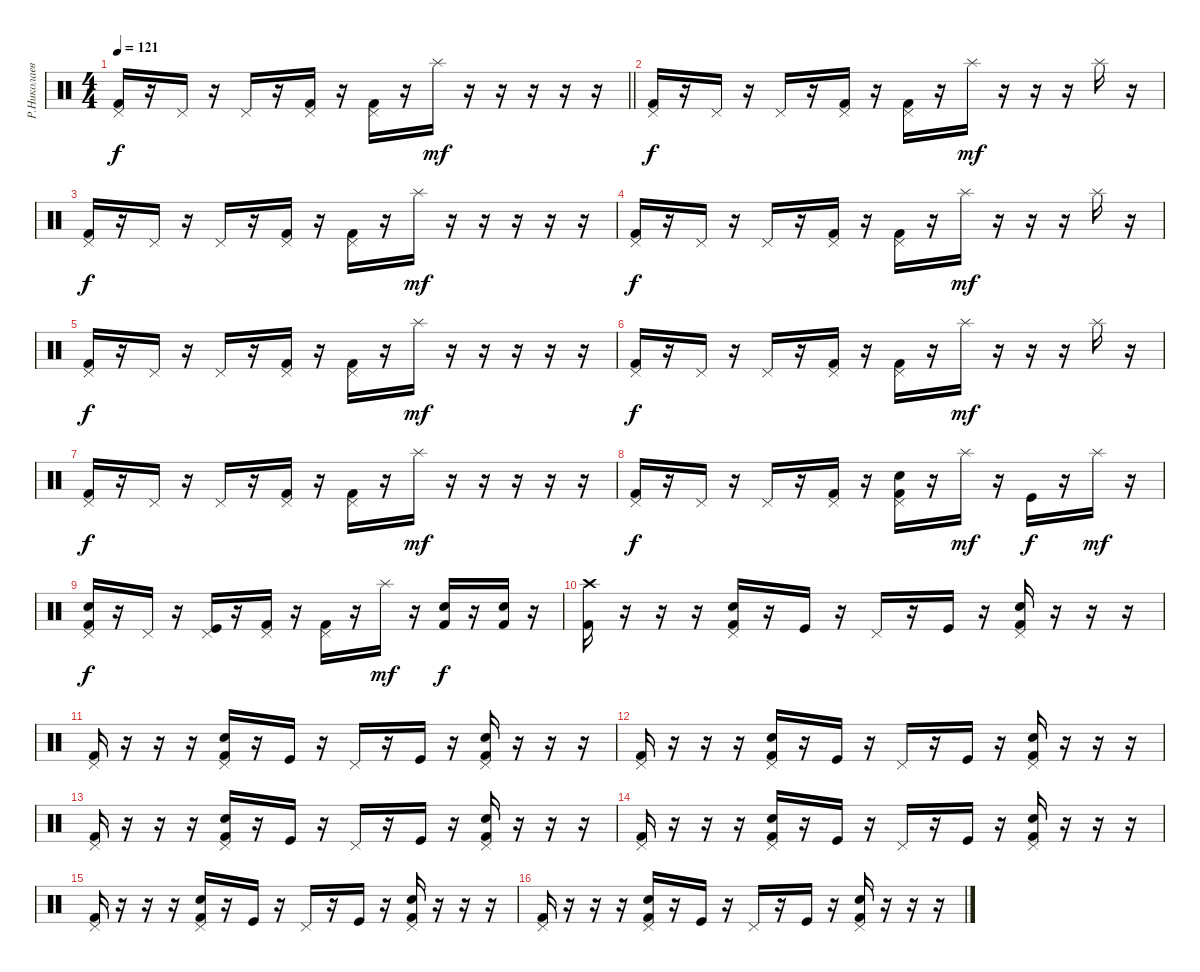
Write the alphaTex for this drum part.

\track ("Р.Николаев" "Р.Николаев") {instrument percussion}
\staff {score}
\articulation defaults
\ts (4 4)
\tempo 121
\clef neutral
\barLineRight lightlight
\ks c
("Pedal Hi-Hat (hit)" "Kick (hit) 2").16{dy f} r.16 "Pedal Hi-Hat (hit)".16 r.16 "Pedal Hi-Hat (hit)".16 r.16 ("Pedal Hi-Hat (hit)" "Kick (hit) 2").16 r.16 ("Pedal Hi-Hat (hit)" "Kick (hit) 2").16 r.16 "Splash (hit)".16{dy mf} r.16 r.16 r.16 r.16 r.16 |
("Pedal Hi-Hat (hit)" "Kick (hit) 2").16{dy f} r.16 "Pedal Hi-Hat (hit)".16 r.16 "Pedal Hi-Hat (hit)".16 r.16 ("Pedal Hi-Hat (hit)" "Kick (hit) 2").16 r.16 ("Pedal Hi-Hat (hit)" "Kick (hit) 2").16 r.16 "Splash (hit)".16{dy mf} r.16 r.16 r.16 "Splash (hit)".16 r.16 |
("Pedal Hi-Hat (hit)" "Kick (hit) 2").16{dy f} r.16 "Pedal Hi-Hat (hit)".16 r.16 "Pedal Hi-Hat (hit)".16 r.16 ("Pedal Hi-Hat (hit)" "Kick (hit) 2").16 r.16 ("Pedal Hi-Hat (hit)" "Kick (hit) 2").16 r.16 "Splash (hit)".16{dy mf} r.16 r.16 r.16 r.16 r.16 |
("Pedal Hi-Hat (hit)" "Kick (hit) 2").16{dy f} r.16 "Pedal Hi-Hat (hit)".16 r.16 "Pedal Hi-Hat (hit)".16 r.16 ("Pedal Hi-Hat (hit)" "Kick (hit) 2").16 r.16 ("Pedal Hi-Hat (hit)" "Kick (hit) 2").16 r.16 "Splash (hit)".16{dy mf} r.16 r.16 r.16 "Splash (hit)".16 r.16 |
("Pedal Hi-Hat (hit)" "Kick (hit) 2").16{dy f} r.16 "Pedal Hi-Hat (hit)".16 r.16 "Pedal Hi-Hat (hit)".16 r.16 ("Pedal Hi-Hat (hit)" "Kick (hit) 2").16 r.16 ("Pedal Hi-Hat (hit)" "Kick (hit) 2").16 r.16 "Splash (hit)".16{dy mf} r.16 r.16 r.16 r.16 r.16 |
("Pedal Hi-Hat (hit)" "Kick (hit) 2").16{dy f} r.16 "Pedal Hi-Hat (hit)".16 r.16 "Pedal Hi-Hat (hit)".16 r.16 ("Pedal Hi-Hat (hit)" "Kick (hit) 2").16 r.16 ("Pedal Hi-Hat (hit)" "Kick (hit) 2").16 r.16 "Splash (hit)".16{dy mf} r.16 r.16 r.16 "Splash (hit)".16 r.16 |
("Pedal Hi-Hat (hit)" "Kick (hit) 2").16{dy f} r.16 "Pedal Hi-Hat (hit)".16 r.16 "Pedal Hi-Hat (hit)".16 r.16 ("Pedal Hi-Hat (hit)" "Kick (hit) 2").16 r.16 ("Pedal Hi-Hat (hit)" "Kick (hit) 2").16 r.16 "Splash (hit)".16{dy mf} r.16 r.16 r.16 r.16 r.16 |
("Pedal Hi-Hat (hit)" "Kick (hit) 2").16{dy f} r.16 "Pedal Hi-Hat (hit)".16 r.16 "Pedal Hi-Hat (hit)".16 r.16 ("Pedal Hi-Hat (hit)" "Kick (hit) 2").16 r.16 ("Pedal Hi-Hat (hit)" "Snare (hit) 2" "Kick (hit) 2").16 r.16 "Splash (hit)".16{dy mf} r.16 "Kick (hit)".16{dy f} r.16 "Splash (hit)".16{dy mf} r.16 |
("Pedal Hi-Hat (hit)" "Snare (hit) 2" "Kick (hit) 2").16{dy f} r.16 "Pedal Hi-Hat (hit)".16 r.16 ("Pedal Hi-Hat (hit)" "Kick (hit)").16 r.16 ("Pedal Hi-Hat (hit)" "Kick (hit) 2").16 r.16 ("Pedal Hi-Hat (hit)" "Kick (hit) 2").16 r.16 "Splash (hit)".16{dy mf} r.16 ("Snare (hit) 2" "Kick (hit) 2").16{dy f} r.16 ("Snare (hit) 2" "Kick (hit) 2").16 r.16 |
("Crash high (hit)" "Kick (hit) 2").16 r.16 r.16 r.16 ("Pedal Hi-Hat (hit)" "Snare (hit) 2" "Kick (hit) 2").16 r.16 "Kick (hit)".16 r.16 "Pedal Hi-Hat (hit)".16 r.16 "Kick (hit)".16 r.16 ("Pedal Hi-Hat (hit)" "Snare (hit) 2" "Kick (hit) 2").16 r.16 r.16 r.16 |
("Pedal Hi-Hat (hit)" "Kick (hit) 2").16 r.16 r.16 r.16 ("Pedal Hi-Hat (hit)" "Snare (hit) 2" "Kick (hit) 2").16 r.16 "Kick (hit)".16 r.16 "Pedal Hi-Hat (hit)".16 r.16 "Kick (hit)".16 r.16 ("Pedal Hi-Hat (hit)" "Snare (hit) 2" "Kick (hit) 2").16 r.16 r.16 r.16 |
("Pedal Hi-Hat (hit)" "Kick (hit) 2").16 r.16 r.16 r.16 ("Pedal Hi-Hat (hit)" "Snare (hit) 2" "Kick (hit) 2").16 r.16 "Kick (hit)".16 r.16 "Pedal Hi-Hat (hit)".16 r.16 "Kick (hit)".16 r.16 ("Pedal Hi-Hat (hit)" "Snare (hit) 2" "Kick (hit) 2").16 r.16 r.16 r.16 |
("Pedal Hi-Hat (hit)" "Kick (hit) 2").16 r.16 r.16 r.16 ("Pedal Hi-Hat (hit)" "Snare (hit) 2" "Kick (hit) 2").16 r.16 "Kick (hit)".16 r.16 "Pedal Hi-Hat (hit)".16 r.16 "Kick (hit)".16 r.16 ("Pedal Hi-Hat (hit)" "Snare (hit) 2" "Kick (hit) 2").16 r.16 r.16 r.16 |
("Pedal Hi-Hat (hit)" "Kick (hit) 2").16 r.16 r.16 r.16 ("Pedal Hi-Hat (hit)" "Snare (hit) 2" "Kick (hit) 2").16 r.16 "Kick (hit)".16 r.16 "Pedal Hi-Hat (hit)".16 r.16 "Kick (hit)".16 r.16 ("Pedal Hi-Hat (hit)" "Snare (hit) 2" "Kick (hit) 2").16 r.16 r.16 r.16 |
("Pedal Hi-Hat (hit)" "Kick (hit) 2").16 r.16 r.16 r.16 ("Pedal Hi-Hat (hit)" "Snare (hit) 2" "Kick (hit) 2").16 r.16 "Kick (hit)".16 r.16 "Pedal Hi-Hat (hit)".16 r.16 "Kick (hit)".16 r.16 ("Pedal Hi-Hat (hit)" "Snare (hit) 2" "Kick (hit) 2").16 r.16 r.16 r.16 |
("Pedal Hi-Hat (hit)" "Kick (hit) 2").16 r.16 r.16 r.16 ("Pedal Hi-Hat (hit)" "Snare (hit) 2" "Kick (hit) 2").16 r.16 "Kick (hit)".16 r.16 "Pedal Hi-Hat (hit)".16 r.16 "Kick (hit)".16 r.16 ("Pedal Hi-Hat (hit)" "Snare (hit) 2" "Kick (hit) 2").16 r.16 r.16 r.16
